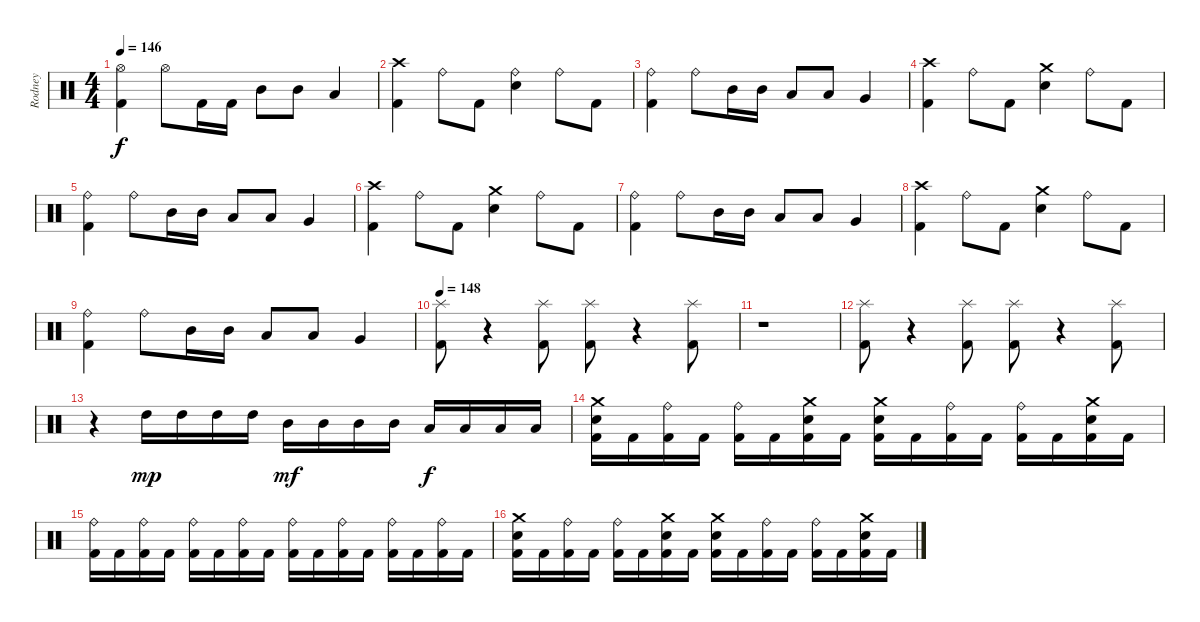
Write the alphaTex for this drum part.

\track ("Rodney" "Rodney") {instrument percussion}
\staff {score}
\articulation defaults
\ts (4 4)
\tempo 146
\clef neutral
\ks c
("Hi-Hat (open)" "Kick (hit) 2").4{dy f} "Hi-Hat (open)".8 "Kick (hit) 2".16 "Kick (hit) 2".16 "Mid Tom (hit)".8 "Mid Tom (hit)".8 "Low Tom (hit)".4 |
("Crash high (hit)" "Kick (hit) 2").4 "Ride (bell)".8 "Kick (hit) 2".8 ("Ride (bell)" "Snare (hit) 2").4 "Ride (bell)".8 "Kick (hit) 2".8 |
("Ride (bell)" "Kick (hit) 2").4 "Ride (bell)".8 "Mid Tom (hit)".16 "Mid Tom (hit)".16 "Low Tom (hit)".8 "Low Tom (hit)".8 "Very Low Tom (hit)".4 |
("Crash high (hit)" "Kick (hit) 2").4 "Ride (bell)".8 "Kick (hit) 2".8 ("Crash medium (hit)" "Snare (hit) 2").4 "Ride (bell)".8 "Kick (hit) 2".8 |
("Ride (bell)" "Kick (hit) 2").4 "Ride (bell)".8 "Mid Tom (hit)".16 "Mid Tom (hit)".16 "Low Tom (hit)".8 "Low Tom (hit)".8 "Very Low Tom (hit)".4 |
("Crash high (hit)" "Kick (hit) 2").4 "Ride (bell)".8 "Kick (hit) 2".8 ("Crash medium (hit)" "Snare (hit) 2").4 "Ride (bell)".8 "Kick (hit) 2".8 |
("Ride (bell)" "Kick (hit) 2").4 "Ride (bell)".8 "Mid Tom (hit)".16 "Mid Tom (hit)".16 "Low Tom (hit)".8 "Low Tom (hit)".8 "Very Low Tom (hit)".4 |
("Crash high (hit)" "Kick (hit) 2").4 "Ride (bell)".8 "Kick (hit) 2".8 ("Crash medium (hit)" "Snare (hit) 2").4 "Ride (bell)".8 "Kick (hit) 2".8 |
("Ride (bell)" "Kick (hit) 2").4 "Ride (bell)".8 "Mid Tom (hit)".16 "Mid Tom (hit)".16 "Low Tom (hit)".8 "Low Tom (hit)".8 "Very Low Tom (hit)".4 |
\tempo 148
("Splash (hit)" "Kick (hit) 2").8 r.4 ("Splash (hit)" "Kick (hit) 2").8 ("Splash (hit)" "Kick (hit) 2").8 r.4 ("Splash (hit)" "Kick (hit) 2").8 |
r.1 |
("Splash (hit)" "Kick (hit) 2").8 r.4 ("Splash (hit)" "Kick (hit) 2").8 ("Splash (hit)" "Kick (hit) 2").8 r.4 ("Splash (hit)" "Kick (hit) 2").8 |
r.4 "High Tom (hit)".16{dy mp} "High Tom (hit)".16 "High Tom (hit)".16 "High Tom (hit)".16 "Mid Tom (hit)".16{dy mf} "Mid Tom (hit)".16 "Mid Tom (hit)".16 "Mid Tom (hit)".16 "Low Tom (hit)".16{dy f} "Low Tom (hit)".16 "Low Tom (hit)".16 "Low Tom (hit)".16 |
("Crash medium (hit)" "Snare (hit) 2" "Kick (hit) 2").16 "Kick (hit) 2".16 ("Ride (bell)" "Kick (hit) 2").16 "Kick (hit) 2".16 ("Ride (bell)" "Kick (hit) 2").16 "Kick (hit) 2".16 ("Crash medium (hit)" "Snare (hit) 2" "Kick (hit) 2").16 "Kick (hit) 2".16 ("Crash medium (hit)" "Snare (hit) 2" "Kick (hit) 2").16 "Kick (hit) 2".16 ("Ride (bell)" "Kick (hit) 2").16 "Kick (hit) 2".16 ("Ride (bell)" "Kick (hit) 2").16 "Kick (hit) 2".16 ("Crash medium (hit)" "Snare (hit) 2" "Kick (hit) 2").16 "Kick (hit) 2".16 |
("Ride (bell)" "Kick (hit) 2").16 "Kick (hit) 2".16 ("Ride (bell)" "Kick (hit) 2").16 "Kick (hit) 2".16 ("Ride (bell)" "Kick (hit) 2").16 "Kick (hit) 2".16 ("Ride (bell)" "Kick (hit) 2").16 "Kick (hit) 2".16 ("Ride (bell)" "Kick (hit) 2").16 "Kick (hit) 2".16 ("Ride (bell)" "Kick (hit) 2").16 "Kick (hit) 2".16 ("Ride (bell)" "Kick (hit) 2").16 "Kick (hit) 2".16 ("Ride (bell)" "Kick (hit) 2").16 "Kick (hit) 2".16 |
("Crash medium (hit)" "Snare (hit) 2" "Kick (hit) 2").16 "Kick (hit) 2".16 ("Ride (bell)" "Kick (hit) 2").16 "Kick (hit) 2".16 ("Ride (bell)" "Kick (hit) 2").16 "Kick (hit) 2".16 ("Crash medium (hit)" "Snare (hit) 2" "Kick (hit) 2").16 "Kick (hit) 2".16 ("Crash medium (hit)" "Snare (hit) 2" "Kick (hit) 2").16 "Kick (hit) 2".16 ("Ride (bell)" "Kick (hit) 2").16 "Kick (hit) 2".16 ("Ride (bell)" "Kick (hit) 2").16 "Kick (hit) 2".16 ("Crash medium (hit)" "Snare (hit) 2" "Kick (hit) 2").16 "Kick (hit) 2".16
